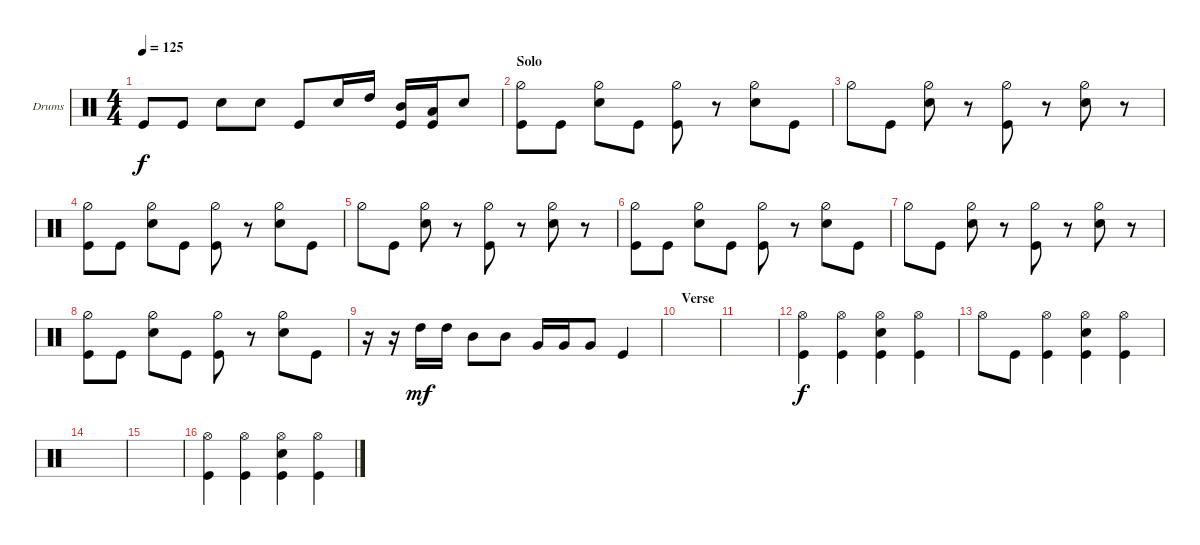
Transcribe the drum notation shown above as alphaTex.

\defaultSystemsLayout 4
\bracketExtendMode groupsimilarinstruments
\firstSystemTrackNameOrientation horizontal
\otherSystemsTrackNameOrientation horizontal
\track ("Drumkit" "Drums") {instrument percussion}
\staff {score}
\articulation defaults
\ts (4 4)
\tempo 125
\clef neutral
\ks c "Kick (hit)".8{dy f} "Kick (hit)".8 "Snare (hit) 2".8 "Snare (hit) 2".8 "Kick (hit)".8 "Snare (hit) 2".16 "High Tom (hit)".16
("Kick (hit)" "Mid Tom (hit)").16 ("Kick (hit)" "Low Tom (hit)").16 "Snare (hit) 2".8 |
\section ("" "Solo")
("Kick (hit)" "Hi-Hat (half)").8 "Kick (hit)".8 ("Hi-Hat (half)" "Snare (hit) 2").8 "Kick (hit)".8 ("Hi-Hat (half)" "Kick (hit)").8 r.8 ("Hi-Hat (half)" "Snare (hit) 2").8 "Kick (hit)".8 |
"Hi-Hat (half)".8 "Kick (hit)".8 ("Hi-Hat (half)" "Snare (hit) 2").8 r.8 ("Hi-Hat (half)" "Kick (hit)").8 r.8 ("Hi-Hat (half)" "Snare (hit) 2").8 r.8 |
("Kick (hit)" "Hi-Hat (half)").8 "Kick (hit)".8 ("Hi-Hat (half)" "Snare (hit) 2").8 "Kick (hit)".8 ("Hi-Hat (half)" "Kick (hit)").8 r.8 ("Hi-Hat (half)" "Snare (hit) 2").8 "Kick (hit)".8 |
"Hi-Hat (half)".8 "Kick (hit)".8 ("Hi-Hat (half)" "Snare (hit) 2").8 r.8 ("Hi-Hat (half)" "Kick (hit)").8 r.8 ("Hi-Hat (half)" "Snare (hit) 2").8 r.8 |
("Kick (hit)" "Hi-Hat (half)").8 "Kick (hit)".8 ("Hi-Hat (half)" "Snare (hit) 2").8 "Kick (hit)".8 ("Hi-Hat (half)" "Kick (hit)").8 r.8 ("Hi-Hat (half)" "Snare (hit) 2").8 "Kick (hit)".8 |
"Hi-Hat (half)".8 "Kick (hit)".8 ("Hi-Hat (half)" "Snare (hit) 2").8 r.8 ("Hi-Hat (half)" "Kick (hit)").8 r.8 ("Hi-Hat (half)" "Snare (hit) 2").8 r.8 |
("Kick (hit)" "Hi-Hat (half)").8 "Kick (hit)".8 ("Hi-Hat (half)" "Snare (hit) 2").8 "Kick (hit)".8 ("Hi-Hat (half)" "Kick (hit)").8 r.8 ("Hi-Hat (half)" "Snare (hit) 2").8 "Kick (hit)".8 |
r.16 r.16 "High Tom (hit)".16{dy mf} "High Tom (hit)".16 "Mid Tom (hit)".8 "Mid Tom (hit)".8 "Very Low Tom (hit)".16 "Very Low Tom (hit)".16 "Very Low Tom (hit)".8 "Kick (hit)".4 |
\section ("" "Verse")
|
|
("Kick (hit)" "Hi-Hat (open)").4{dy f} ("Kick (hit)" "Hi-Hat (open)").4 ("Kick (hit)" "Snare (hit) 2" "Hi-Hat (open)").4 ("Kick (hit)" "Hi-Hat (open)").4 |
"Hi-Hat (open)".8 "Kick (hit)".8 ("Kick (hit)" "Hi-Hat (open)").4 ("Kick (hit)" "Snare (hit) 2" "Hi-Hat (open)").4 ("Kick (hit)" "Hi-Hat (open)").4 |
|
|
("Kick (hit)" "Hi-Hat (open)").4 ("Kick (hit)" "Hi-Hat (open)").4 ("Kick (hit)" "Snare (hit) 2" "Hi-Hat (open)").4 ("Kick (hit)" "Hi-Hat (open)").4
